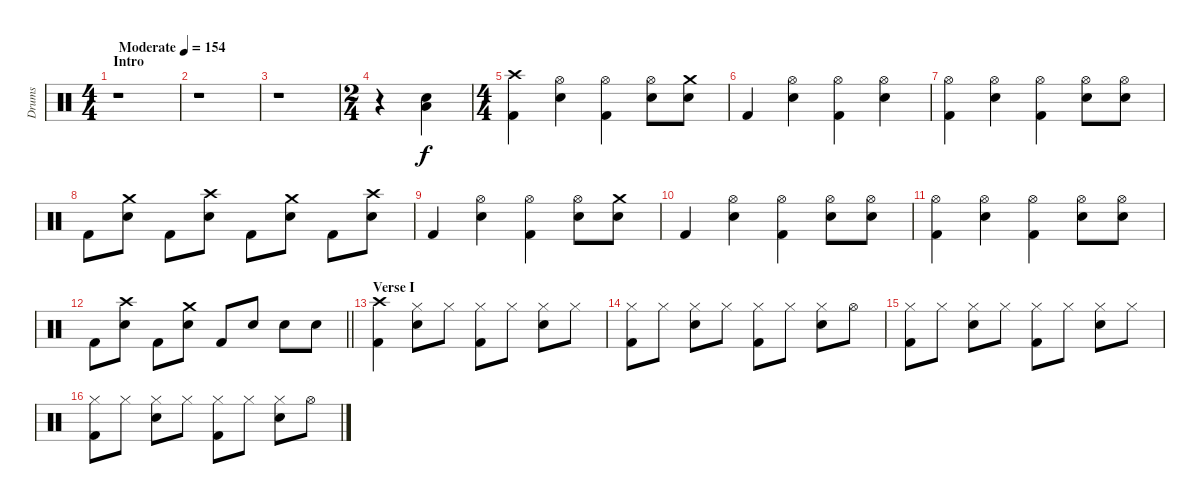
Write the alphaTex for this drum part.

\track ("Drums" "Drums") {instrument percussion}
\staff {score}
\articulation defaults
\ts (4 4)
\section ("" "Intro")
\tempo (154 "Moderate")
\clef neutral
\ks c
r.1{dy f} |
r.1 |
r.1 |
\ts (2 4)
r.4 ("Snare (hit) 2" "Low Tom (hit)").4 |
\ts (4 4)
("Crash high (hit)" "Kick (hit) 2").4 ("Hi-Hat (open)" "Snare (hit) 2").4 ("Hi-Hat (open)" "Kick (hit) 2").4 ("Hi-Hat (open)" "Snare (hit) 2").8 ("Crash medium (hit)" "Snare (hit) 2").8 |
"Kick (hit) 2".4 ("Hi-Hat (open)" "Snare (hit) 2").4 ("Hi-Hat (open)" "Kick (hit) 2").4 ("Hi-Hat (open)" "Snare (hit) 2").4 |
("Hi-Hat (open)" "Kick (hit) 2").4 ("Hi-Hat (open)" "Snare (hit) 2").4 ("Hi-Hat (open)" "Kick (hit) 2").4 ("Hi-Hat (open)" "Snare (hit) 2").8 ("Hi-Hat (open)" "Snare (hit) 2").8 |
"Kick (hit) 2".8 ("Crash medium (hit)" "Snare (hit) 2").8 "Kick (hit) 2".8 ("Crash high (hit)" "Snare (hit) 2").8 "Kick (hit) 2".8 ("Crash medium (hit)" "Snare (hit) 2").8 "Kick (hit) 2".8 ("Crash high (hit)" "Snare (hit) 2").8 |
"Kick (hit) 2".4 ("Hi-Hat (open)" "Snare (hit) 2").4 ("Hi-Hat (open)" "Kick (hit) 2").4 ("Hi-Hat (open)" "Snare (hit) 2").8 ("Crash medium (hit)" "Snare (hit) 2").8 |
"Kick (hit) 2".4 ("Hi-Hat (open)" "Snare (hit) 2").4 ("Hi-Hat (open)" "Kick (hit) 2").4 ("Hi-Hat (open)" "Snare (hit) 2").8 ("Hi-Hat (open)" "Snare (hit) 2").8 |
("Hi-Hat (open)" "Kick (hit) 2").4 ("Hi-Hat (open)" "Snare (hit) 2").4 ("Hi-Hat (open)" "Kick (hit) 2").4 ("Hi-Hat (open)" "Snare (hit) 2").8 ("Hi-Hat (open)" "Snare (hit) 2").8 |
\barLineRight lightlight "Kick (hit) 2".8
("Crash high (hit)" "Snare (hit) 2").8 "Kick (hit) 2".8 ("Crash medium (hit)" "Snare (hit) 2").8 "Kick (hit) 2".8 "Snare (hit) 2".8 "Snare (hit) 2".8 "Snare (hit) 2".8 |
\section ("" "Verse I")
("Crash high (hit)" "Kick (hit) 2").4 ("Hi-Hat (closed)" "Snare (hit) 2").8 "Hi-Hat (closed)".8 ("Hi-Hat (closed)" "Kick (hit) 2").8 "Hi-Hat (closed)".8 ("Hi-Hat (closed)" "Snare (hit) 2").8 "Hi-Hat (closed)".8 |
("Hi-Hat (closed)" "Kick (hit) 2").8 "Hi-Hat (closed)".8 ("Hi-Hat (closed)" "Snare (hit) 2").8 "Hi-Hat (closed)".8 ("Hi-Hat (closed)" "Kick (hit) 2").8 "Hi-Hat (closed)".8 ("Hi-Hat (closed)" "Snare (hit) 2").8 "Hi-Hat (open)".8 |
("Hi-Hat (closed)" "Kick (hit) 2").8 "Hi-Hat (closed)".8 ("Hi-Hat (closed)" "Snare (hit) 2").8 "Hi-Hat (closed)".8 ("Hi-Hat (closed)" "Kick (hit) 2").8 "Hi-Hat (closed)".8 ("Hi-Hat (closed)" "Snare (hit) 2").8 "Hi-Hat (closed)".8 |
("Hi-Hat (closed)" "Kick (hit) 2").8 "Hi-Hat (closed)".8 ("Hi-Hat (closed)" "Snare (hit) 2").8 "Hi-Hat (closed)".8 ("Hi-Hat (closed)" "Kick (hit) 2").8 "Hi-Hat (closed)".8 ("Hi-Hat (closed)" "Snare (hit) 2").8 "Hi-Hat (open)".8
